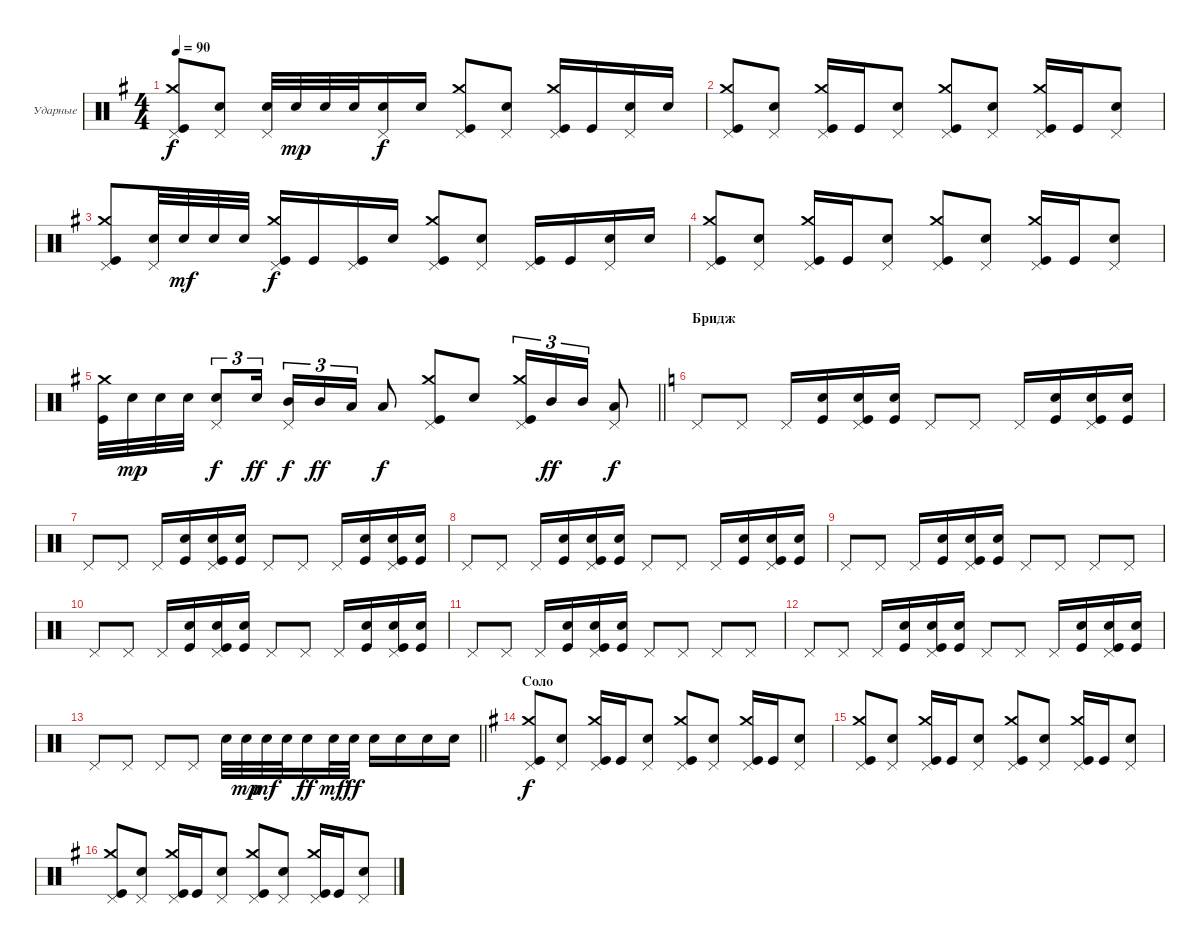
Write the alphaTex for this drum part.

\bracketExtendMode groupsimilarinstruments
\firstSystemTrackNameOrientation horizontal
\otherSystemsTrackNameOrientation horizontal
\track ("Александр Львов" "Ударные") {instrument percussion}
\staff {score}
\articulation defaults
\ts (4 4)
\tempo 90
\clef neutral
\ks eminor
("Kick (hit)" "Crash medium (hit)" "Pedal Hi-Hat (hit)").8{dy f} ("Pedal Hi-Hat (hit)" "Snare (hit) 2").8 ("Pedal Hi-Hat (hit)" "Snare (hit) 2").32 "Snare (hit) 2".32{dy mp} "Snare (hit) 2".32 "Snare (hit) 2".32 ("Snare (hit) 2" "Pedal Hi-Hat (hit)").16{dy f} "Snare (hit) 2".16 ("Kick (hit)" "Crash medium (hit)" "Pedal Hi-Hat (hit)").8 ("Pedal Hi-Hat (hit)" "Snare (hit) 2").8 ("Pedal Hi-Hat (hit)" "Kick (hit)" "Crash medium (hit)").16 "Kick (hit)".16 ("Snare (hit) 2" "Pedal Hi-Hat (hit)").16 "Snare (hit) 2".16 |
("Kick (hit)" "Crash medium (hit)" "Pedal Hi-Hat (hit)").8 ("Snare (hit) 2" "Pedal Hi-Hat (hit)").8 ("Kick (hit)" "Crash medium (hit)" "Pedal Hi-Hat (hit)").16 "Kick (hit)".16 ("Snare (hit) 2" "Pedal Hi-Hat (hit)").8 ("Kick (hit)" "Crash medium (hit)" "Pedal Hi-Hat (hit)").8 ("Snare (hit) 2" "Pedal Hi-Hat (hit)").8 ("Kick (hit)" "Crash medium (hit)" "Pedal Hi-Hat (hit)").16 "Kick (hit)".16 ("Snare (hit) 2" "Pedal Hi-Hat (hit)").8 |
("Kick (hit)" "Pedal Hi-Hat (hit)" "Crash medium (hit)").8 ("Pedal Hi-Hat (hit)" "Snare (hit) 2").32 "Snare (hit) 2".32{dy mf} "Snare (hit) 2".32 "Snare (hit) 2".32 ("Kick (hit)" "Crash medium (hit)" "Pedal Hi-Hat (hit)").16{dy f} "Kick (hit)".16 ("Kick (hit)" "Pedal Hi-Hat (hit)").16 "Snare (hit) 2".16 ("Kick (hit)" "Crash medium (hit)" "Pedal Hi-Hat (hit)").8 ("Snare (hit) 2" "Pedal Hi-Hat (hit)").8 ("Kick (hit)" "Pedal Hi-Hat (hit)").16 "Kick (hit)".16 ("Snare (hit) 2" "Pedal Hi-Hat (hit)").16 "Snare (hit) 2".16 |
("Kick (hit)" "Crash medium (hit)" "Pedal Hi-Hat (hit)").8 ("Snare (hit) 2" "Pedal Hi-Hat (hit)").8 ("Kick (hit)" "Crash medium (hit)" "Pedal Hi-Hat (hit)").16 "Kick (hit)".16 ("Snare (hit) 2" "Pedal Hi-Hat (hit)").8 ("Kick (hit)" "Crash medium (hit)" "Pedal Hi-Hat (hit)").8 ("Snare (hit) 2" "Pedal Hi-Hat (hit)").8 ("Kick (hit)" "Crash medium (hit)" "Pedal Hi-Hat (hit)").16 "Kick (hit)".16 ("Snare (hit) 2" "Pedal Hi-Hat (hit)").8 |
\barLineRight lightlight
("Kick (hit)" "Crash medium (hit)").32 "Snare (hit) 2".32{dy mp} "Snare (hit) 2".32 "Snare (hit) 2".32 ("Snare (hit) 2" "Pedal Hi-Hat (hit)").8{tu (3 2) dy f} "Snare (hit) 2".16{tu (3 2) dy ff} ("Pedal Hi-Hat (hit)" "Mid Tom (hit)").16{tu (3 2) dy f} "Mid Tom (hit)".16{tu (3 2) dy ff} "Low Tom (hit)".16{tu (3 2)} "Low Tom (hit)".8{dy f} ("Pedal Hi-Hat (hit)" "Crash medium (hit)" "Kick (hit)").8 "Snare (hit) 2".8 ("Pedal Hi-Hat (hit)" "Crash medium (hit)" "Kick (hit)").16{tu (3 2)} "Mid Tom (hit)".16{tu (3 2) dy ff} "Mid Tom (hit)".16{tu (3 2)} ("Pedal Hi-Hat (hit)" "Low Tom (hit)").8{dy f} |
\section ("" "Бридж")
\ks c "Pedal Hi-Hat (hit)".8 "Pedal Hi-Hat (hit)".8 "Pedal Hi-Hat (hit)".16
("Kick (hit)" "Snare (hit) 2").16 ("Kick (hit)" "Snare (hit) 2" "Pedal Hi-Hat (hit)").16 ("Kick (hit)" "Snare (hit) 2").16 "Pedal Hi-Hat (hit)".8 "Pedal Hi-Hat (hit)".8 "Pedal Hi-Hat (hit)".16 ("Snare (hit) 2" "Kick (hit)").16 ("Snare (hit) 2" "Kick (hit)" "Pedal Hi-Hat (hit)").16 ("Snare (hit) 2" "Kick (hit)").16 |
"Pedal Hi-Hat (hit)".8 "Pedal Hi-Hat (hit)".8 "Pedal Hi-Hat (hit)".16 ("Kick (hit)" "Snare (hit) 2").16 ("Kick (hit)" "Snare (hit) 2" "Pedal Hi-Hat (hit)").16 ("Kick (hit)" "Snare (hit) 2").16 "Pedal Hi-Hat (hit)".8 "Pedal Hi-Hat (hit)".8 "Pedal Hi-Hat (hit)".16 ("Snare (hit) 2" "Kick (hit)").16 ("Snare (hit) 2" "Kick (hit)" "Pedal Hi-Hat (hit)").16 ("Snare (hit) 2" "Kick (hit)").16 |
"Pedal Hi-Hat (hit)".8 "Pedal Hi-Hat (hit)".8 "Pedal Hi-Hat (hit)".16 ("Kick (hit)" "Snare (hit) 2").16 ("Kick (hit)" "Snare (hit) 2" "Pedal Hi-Hat (hit)").16 ("Kick (hit)" "Snare (hit) 2").16 "Pedal Hi-Hat (hit)".8 "Pedal Hi-Hat (hit)".8 "Pedal Hi-Hat (hit)".16 ("Snare (hit) 2" "Kick (hit)").16 ("Snare (hit) 2" "Kick (hit)" "Pedal Hi-Hat (hit)").16 ("Snare (hit) 2" "Kick (hit)").16 |
"Pedal Hi-Hat (hit)".8 "Pedal Hi-Hat (hit)".8 "Pedal Hi-Hat (hit)".16 ("Kick (hit)" "Snare (hit) 2").16 ("Kick (hit)" "Snare (hit) 2" "Pedal Hi-Hat (hit)").16 ("Kick (hit)" "Snare (hit) 2").16 "Pedal Hi-Hat (hit)".8 "Pedal Hi-Hat (hit)".8 "Pedal Hi-Hat (hit)".8 "Pedal Hi-Hat (hit)".8 |
"Pedal Hi-Hat (hit)".8 "Pedal Hi-Hat (hit)".8 "Pedal Hi-Hat (hit)".16 ("Kick (hit)" "Snare (hit) 2").16 ("Kick (hit)" "Snare (hit) 2" "Pedal Hi-Hat (hit)").16 ("Kick (hit)" "Snare (hit) 2").16 "Pedal Hi-Hat (hit)".8 "Pedal Hi-Hat (hit)".8 "Pedal Hi-Hat (hit)".16 ("Snare (hit) 2" "Kick (hit)").16 ("Snare (hit) 2" "Kick (hit)" "Pedal Hi-Hat (hit)").16 ("Snare (hit) 2" "Kick (hit)").16 |
"Pedal Hi-Hat (hit)".8 "Pedal Hi-Hat (hit)".8 "Pedal Hi-Hat (hit)".16 ("Kick (hit)" "Snare (hit) 2").16 ("Kick (hit)" "Snare (hit) 2" "Pedal Hi-Hat (hit)").16 ("Kick (hit)" "Snare (hit) 2").16 "Pedal Hi-Hat (hit)".8 "Pedal Hi-Hat (hit)".8 "Pedal Hi-Hat (hit)".8 "Pedal Hi-Hat (hit)".8 |
"Pedal Hi-Hat (hit)".8 "Pedal Hi-Hat (hit)".8 "Pedal Hi-Hat (hit)".16 ("Kick (hit)" "Snare (hit) 2").16 ("Kick (hit)" "Snare (hit) 2" "Pedal Hi-Hat (hit)").16 ("Kick (hit)" "Snare (hit) 2").16 "Pedal Hi-Hat (hit)".8 "Pedal Hi-Hat (hit)".8 "Pedal Hi-Hat (hit)".16 ("Snare (hit) 2" "Kick (hit)").16 ("Snare (hit) 2" "Kick (hit)" "Pedal Hi-Hat (hit)").16 ("Snare (hit) 2" "Kick (hit)").16 |
\barLineRight lightlight "Pedal Hi-Hat (hit)".8 "Pedal Hi-Hat (hit)".8 "Pedal Hi-Hat (hit)".8 "Pedal Hi-Hat (hit)".8 "Snare (hit) 2".32 "Snare (hit) 2".32{dy mp} "Snare (hit) 2".32{dy mf} "Snare (hit) 2".32 "Snare (hit) 2".16{dy ff} "Snare (hit) 2".32{dy mf} "Snare (hit) 2".32{dy ff} "Snare (hit) 2".16 "Snare (hit) 2".16 "Snare (hit) 2".16 "Snare (hit) 2".16
|
\section ("" "Соло")
\ks eminor
("Kick (hit)" "Crash medium (hit)" "Pedal Hi-Hat (hit)").8{dy f} ("Snare (hit) 2" "Pedal Hi-Hat (hit)").8 ("Kick (hit)" "Crash medium (hit)" "Pedal Hi-Hat (hit)").16 "Kick (hit)".16 ("Snare (hit) 2" "Pedal Hi-Hat (hit)").8 ("Kick (hit)" "Crash medium (hit)" "Pedal Hi-Hat (hit)").8 ("Snare (hit) 2" "Pedal Hi-Hat (hit)").8 ("Kick (hit)" "Crash medium (hit)" "Pedal Hi-Hat (hit)").16 "Kick (hit)".16 ("Snare (hit) 2" "Pedal Hi-Hat (hit)").8 |
("Kick (hit)" "Crash medium (hit)" "Pedal Hi-Hat (hit)").8 ("Snare (hit) 2" "Pedal Hi-Hat (hit)").8 ("Kick (hit)" "Crash medium (hit)" "Pedal Hi-Hat (hit)").16 "Kick (hit)".16 ("Snare (hit) 2" "Pedal Hi-Hat (hit)").8 ("Kick (hit)" "Crash medium (hit)" "Pedal Hi-Hat (hit)").8 ("Snare (hit) 2" "Pedal Hi-Hat (hit)").8 ("Kick (hit)" "Crash medium (hit)" "Pedal Hi-Hat (hit)").16 "Kick (hit)".16 ("Snare (hit) 2" "Pedal Hi-Hat (hit)").8 |
("Kick (hit)" "Crash medium (hit)" "Pedal Hi-Hat (hit)").8 ("Snare (hit) 2" "Pedal Hi-Hat (hit)").8 ("Kick (hit)" "Crash medium (hit)" "Pedal Hi-Hat (hit)").16 "Kick (hit)".16 ("Snare (hit) 2" "Pedal Hi-Hat (hit)").8 ("Kick (hit)" "Crash medium (hit)" "Pedal Hi-Hat (hit)").8 ("Snare (hit) 2" "Pedal Hi-Hat (hit)").8 ("Kick (hit)" "Crash medium (hit)" "Pedal Hi-Hat (hit)").16 "Kick (hit)".16 ("Snare (hit) 2" "Pedal Hi-Hat (hit)").8
